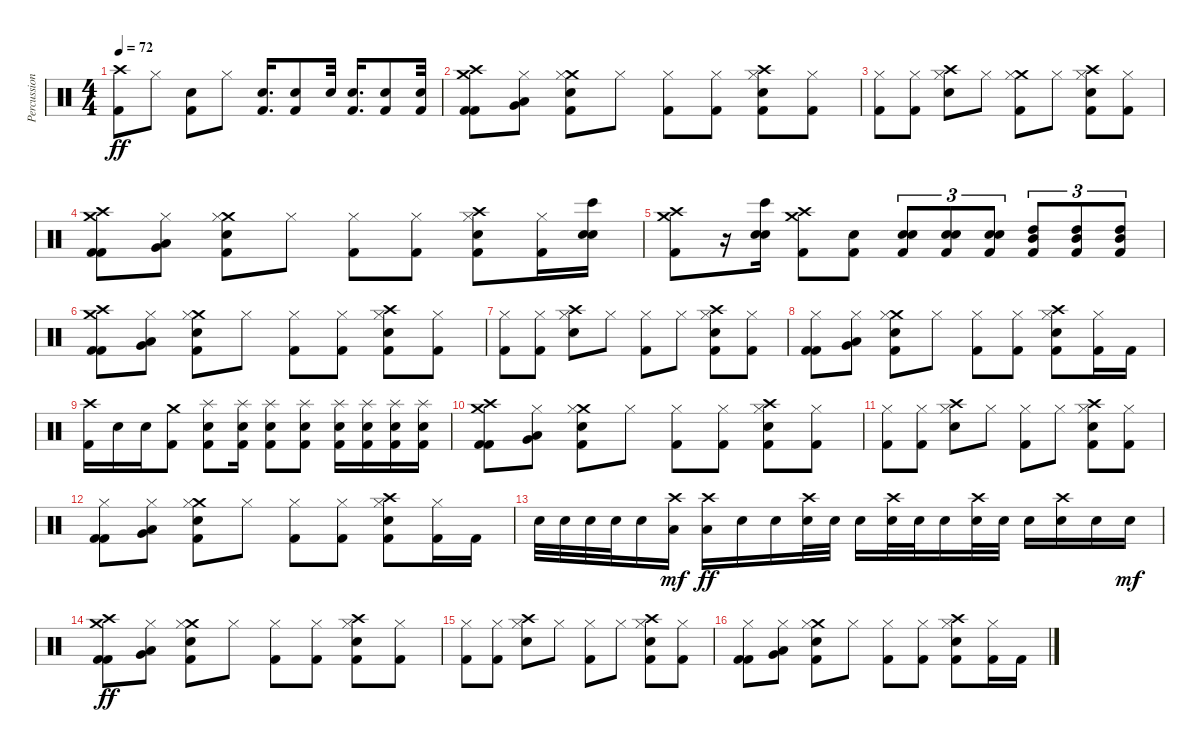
\track ("Percussion" "Percussion") {instrument percussion}
\staff {score}
\articulation defaults
\ts (4 4)
\tempo 72
\clef neutral
\ks c
("Crash high (hit)" "Kick (hit) 2").8{dy ff} "Hi-Hat (closed)".8 ("Snare (hit) 2" "Kick (hit) 2").8 "Hi-Hat (closed)".8 ("Snare (hit) 2" "Kick (hit) 2").16{d} ("Snare (hit) 2" "Kick (hit) 2").8 "Electric Snare (hit)".32 ("Snare (hit) 2" "Kick (hit) 2").16{d} ("Snare (hit) 2" "Kick (hit) 2").8 ("Snare (hit) 2" "Kick (hit) 2").32 |
("Kick (hit) 2" "Kick (hit) 2" "Crash high (hit)" "Crash medium (hit)").8 ("Hi-Hat (closed)" "Low Floor Tom (hit)" "Very Low Tom (hit)").8 ("Crash medium (hit)" "Hi-Hat (closed)" "Snare (hit) 2" "Kick (hit) 2").8 "Hi-Hat (closed)".8 ("Hi-Hat (closed)" "Kick (hit) 2").8 ("Hi-Hat (closed)" "Kick (hit) 2").8 ("Crash high (hit)" "Hi-Hat (closed)" "Snare (hit) 2" "Kick (hit) 2").8 ("Hi-Hat (closed)" "Kick (hit) 2").8 |
("Hi-Hat (closed)" "Kick (hit) 2").8 ("Hi-Hat (closed)" "Kick (hit) 2").8 ("Crash high (hit)" "Hi-Hat (closed)" "Snare (hit) 2").8 "Hi-Hat (closed)".8 ("Crash medium (hit)" "Hi-Hat (closed)" "Kick (hit) 2").8 "Hi-Hat (closed)".8 ("Crash high (hit)" "Hi-Hat (closed)" "Snare (hit) 2" "Kick (hit) 2").8 ("Hi-Hat (closed)" "Kick (hit) 2").8 |
("Crash medium (hit)" "Crash high (hit)" "Kick (hit) 2" "Kick (hit) 2").8 ("Hi-Hat (closed)" "Low Floor Tom (hit)" "Very Low Tom (hit)").8 ("Crash medium (hit)" "Hi-Hat (closed)" "Snare (hit) 2" "Kick (hit) 2").8 "Hi-Hat (closed)".8 ("Hi-Hat (closed)" "Kick (hit) 2").8 ("Hi-Hat (closed)" "Kick (hit) 2").8 ("Crash high (hit)" "Hi-Hat (closed)" "Snare (hit) 2" "Kick (hit) 2").8 ("Hi-Hat (closed)" "Kick (hit) 2").16 ("Bongo High (hit)" "Hand Clap (hit)" "Electric Snare (hit)").16 |
("Crash medium (hit)" "Crash high (hit)" "Kick (hit) 2").8 r.16 ("Hand Clap (hit)" "Bongo High (hit)" "Electric Snare (hit)").16 ("Crash high (hit)" "Crash medium (hit)" "Kick (hit) 2").8 ("Snare (hit) 2" "Kick (hit) 2").8 ("Electric Snare (hit)" "Snare (hit) 2" "Kick (hit) 2").8{tu (3 2)} ("Electric Snare (hit)" "Snare (hit) 2" "Kick (hit) 2").8{tu (3 2)} ("Electric Snare (hit)" "Snare (hit) 2" "Kick (hit) 2").8{tu (3 2)} ("Mid Tom (hit)" "High Tom (hit)" "Kick (hit) 2").8{tu (3 2)} ("Mid Tom (hit)" "High Tom (hit)" "Kick (hit) 2").8{tu (3 2)} ("Mid Tom (hit)" "High Tom (hit)" "Kick (hit) 2").8{tu (3 2)} |
("Kick (hit) 2" "Kick (hit) 2" "Crash high (hit)" "Crash medium (hit)").8 ("Hi-Hat (closed)" "Low Floor Tom (hit)" "Very Low Tom (hit)").8 ("Crash medium (hit)" "Hi-Hat (closed)" "Snare (hit) 2" "Kick (hit) 2").8 "Hi-Hat (closed)".8 ("Hi-Hat (closed)" "Kick (hit) 2").8 ("Hi-Hat (closed)" "Kick (hit) 2").8 ("Crash high (hit)" "Hi-Hat (closed)" "Snare (hit) 2" "Kick (hit) 2").8 ("Hi-Hat (closed)" "Kick (hit) 2").8 |
("Hi-Hat (closed)" "Kick (hit) 2").8 ("Hi-Hat (closed)" "Kick (hit) 2").8 ("Crash high (hit)" "Hi-Hat (closed)" "Snare (hit) 2").8 "Hi-Hat (closed)".8 ("Hi-Hat (closed)" "Kick (hit) 2").8 "Hi-Hat (closed)".8 ("Crash high (hit)" "Hi-Hat (closed)" "Snare (hit) 2" "Kick (hit) 2").8 ("Hi-Hat (closed)" "Kick (hit) 2").8 |
("Hi-Hat (closed)" "Kick (hit) 2" "Kick (hit) 2").8 ("Hi-Hat (closed)" "Low Floor Tom (hit)" "Very Low Tom (hit)").8 ("Crash medium (hit)" "Hi-Hat (closed)" "Snare (hit) 2" "Kick (hit) 2").8 "Hi-Hat (closed)".8 ("Hi-Hat (closed)" "Kick (hit) 2").8 ("Hi-Hat (closed)" "Kick (hit) 2").8 ("Crash high (hit)" "Hi-Hat (closed)" "Snare (hit) 2" "Kick (hit) 2").8 ("Hi-Hat (closed)" "Kick (hit) 2").16 "Kick (hit) 2".16 |
("Crash high (hit)" "Kick (hit) 2").16 "Snare (hit) 2".16 "Snare (hit) 2".16 ("Crash medium (hit)" "Kick (hit) 2").8 ("Splash (hit)" "Snare (hit) 2" "Kick (hit) 2").8 ("Splash (hit)" "Snare (hit) 2" "Kick (hit) 2").16 ("Splash (hit)" "Snare (hit) 2" "Kick (hit) 2").8 ("Splash (hit)" "Snare (hit) 2" "Kick (hit) 2").8 ("Splash (hit)" "Snare (hit) 2" "Kick (hit) 2").16 ("Splash (hit)" "Snare (hit) 2" "Kick (hit) 2").16 ("Splash (hit)" "Snare (hit) 2" "Kick (hit) 2").16 ("Splash (hit)" "Snare (hit) 2" "Kick (hit) 2").16 |
("Kick (hit) 2" "Kick (hit) 2" "Crash high (hit)" "Crash medium (hit)").8 ("Hi-Hat (closed)" "Low Floor Tom (hit)" "Very Low Tom (hit)").8 ("Crash medium (hit)" "Hi-Hat (closed)" "Snare (hit) 2" "Kick (hit) 2").8 "Hi-Hat (closed)".8 ("Hi-Hat (closed)" "Kick (hit) 2").8 ("Hi-Hat (closed)" "Kick (hit) 2").8 ("Crash high (hit)" "Hi-Hat (closed)" "Snare (hit) 2" "Kick (hit) 2").8 ("Hi-Hat (closed)" "Kick (hit) 2").8 |
("Hi-Hat (closed)" "Kick (hit) 2").8 ("Hi-Hat (closed)" "Kick (hit) 2").8 ("Crash high (hit)" "Hi-Hat (closed)" "Snare (hit) 2").8 "Hi-Hat (closed)".8 ("Hi-Hat (closed)" "Kick (hit) 2").8 "Hi-Hat (closed)".8 ("Crash high (hit)" "Hi-Hat (closed)" "Snare (hit) 2" "Kick (hit) 2").8 ("Hi-Hat (closed)" "Kick (hit) 2").8 |
("Hi-Hat (closed)" "Kick (hit) 2" "Kick (hit) 2").8 ("Hi-Hat (closed)" "Low Floor Tom (hit)" "Very Low Tom (hit)").8 ("Crash medium (hit)" "Hi-Hat (closed)" "Snare (hit) 2" "Kick (hit) 2").8 "Hi-Hat (closed)".8 ("Hi-Hat (closed)" "Kick (hit) 2").8 ("Hi-Hat (closed)" "Kick (hit) 2").8 ("Crash high (hit)" "Hi-Hat (closed)" "Snare (hit) 2" "Kick (hit) 2").8 ("Hi-Hat (closed)" "Kick (hit) 2").16 "Kick (hit) 2".16 |
"Snare (hit) 2".32 "Snare (hit) 2".32 "Snare (hit) 2".32 "Snare (hit) 2".32 "Snare (hit) 2".16 ("Crash high (hit)" "Low Floor Tom (hit)").16{dy mf} ("Crash high (hit)" "Low Floor Tom (hit)").16{dy ff} "Snare (hit) 2".16 "Snare (hit) 2".16 ("Crash high (hit)" "Snare (hit) 2").32 "Snare (hit) 2".32 "Snare (hit) 2".16 ("Crash high (hit)" "Snare (hit) 2").32 "Snare (hit) 2".32 "Snare (hit) 2".16 ("Crash high (hit)" "Snare (hit) 2").32 "Snare (hit) 2".32 "Snare (hit) 2".16 ("Crash high (hit)" "Snare (hit) 2").16 "Snare (hit) 2".16 "Snare (hit) 2".16{dy mf} |
("Kick (hit) 2" "Kick (hit) 2" "Crash high (hit)" "Crash medium (hit)").8{dy ff} ("Hi-Hat (closed)" "Low Floor Tom (hit)" "Very Low Tom (hit)").8 ("Crash medium (hit)" "Hi-Hat (closed)" "Snare (hit) 2" "Kick (hit) 2").8 "Hi-Hat (closed)".8 ("Hi-Hat (closed)" "Kick (hit) 2").8 ("Hi-Hat (closed)" "Kick (hit) 2").8 ("Crash high (hit)" "Hi-Hat (closed)" "Snare (hit) 2" "Kick (hit) 2").8 ("Hi-Hat (closed)" "Kick (hit) 2").8 |
("Hi-Hat (closed)" "Kick (hit) 2").8 ("Hi-Hat (closed)" "Kick (hit) 2").8 ("Crash high (hit)" "Hi-Hat (closed)" "Snare (hit) 2").8 "Hi-Hat (closed)".8 ("Hi-Hat (closed)" "Kick (hit) 2").8 "Hi-Hat (closed)".8 ("Crash high (hit)" "Hi-Hat (closed)" "Snare (hit) 2" "Kick (hit) 2").8 ("Hi-Hat (closed)" "Kick (hit) 2").8 |
("Hi-Hat (closed)" "Kick (hit) 2" "Kick (hit) 2").8 ("Hi-Hat (closed)" "Low Floor Tom (hit)" "Very Low Tom (hit)").8 ("Crash medium (hit)" "Hi-Hat (closed)" "Snare (hit) 2" "Kick (hit) 2").8 "Hi-Hat (closed)".8 ("Hi-Hat (closed)" "Kick (hit) 2").8 ("Hi-Hat (closed)" "Kick (hit) 2").8 ("Crash high (hit)" "Hi-Hat (closed)" "Snare (hit) 2" "Kick (hit) 2").8 ("Hi-Hat (closed)" "Kick (hit) 2").16 "Kick (hit) 2".16
